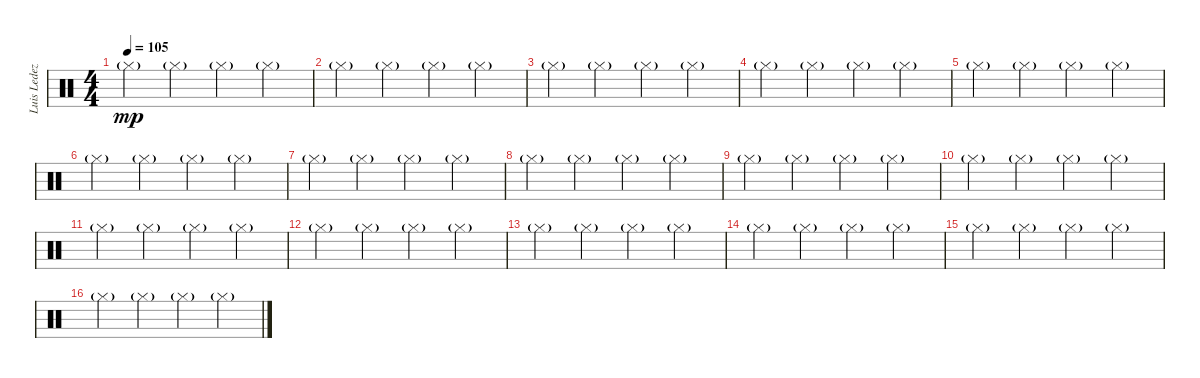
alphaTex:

\track ("Luis Ledezma (bateria)" "Luis Ledez") {instrument percussion}
\staff {score}
\articulation defaults
\ts (4 4)
\tempo 105
\clef neutral
\ks c "Hi-Hat (closed)"{g}.4{dy mp} "Hi-Hat (closed)"{g}.4 "Hi-Hat (closed)"{g}.4 "Hi-Hat (closed)"{g}.4
|
"Hi-Hat (closed)"{g}.4 "Hi-Hat (closed)"{g}.4 "Hi-Hat (closed)"{g}.4 "Hi-Hat (closed)"{g}.4 |
"Hi-Hat (closed)"{g}.4 "Hi-Hat (closed)"{g}.4 "Hi-Hat (closed)"{g}.4 "Hi-Hat (closed)"{g}.4 |
"Hi-Hat (closed)"{g}.4 "Hi-Hat (closed)"{g}.4 "Hi-Hat (closed)"{g}.4 "Hi-Hat (closed)"{g}.4 |
"Hi-Hat (closed)"{g}.4 "Hi-Hat (closed)"{g}.4 "Hi-Hat (closed)"{g}.4 "Hi-Hat (closed)"{g}.4 |
"Hi-Hat (closed)"{g}.4 "Hi-Hat (closed)"{g}.4 "Hi-Hat (closed)"{g}.4 "Hi-Hat (closed)"{g}.4 |
"Hi-Hat (closed)"{g}.4 "Hi-Hat (closed)"{g}.4 "Hi-Hat (closed)"{g}.4 "Hi-Hat (closed)"{g}.4 |
"Hi-Hat (closed)"{g}.4 "Hi-Hat (closed)"{g}.4 "Hi-Hat (closed)"{g}.4 "Hi-Hat (closed)"{g}.4 |
"Hi-Hat (closed)"{g}.4 "Hi-Hat (closed)"{g}.4 "Hi-Hat (closed)"{g}.4 "Hi-Hat (closed)"{g}.4 |
"Hi-Hat (closed)"{g}.4 "Hi-Hat (closed)"{g}.4 "Hi-Hat (closed)"{g}.4 "Hi-Hat (closed)"{g}.4 |
"Hi-Hat (closed)"{g}.4 "Hi-Hat (closed)"{g}.4 "Hi-Hat (closed)"{g}.4 "Hi-Hat (closed)"{g}.4 |
"Hi-Hat (closed)"{g}.4 "Hi-Hat (closed)"{g}.4 "Hi-Hat (closed)"{g}.4 "Hi-Hat (closed)"{g}.4 |
"Hi-Hat (closed)"{g}.4 "Hi-Hat (closed)"{g}.4 "Hi-Hat (closed)"{g}.4 "Hi-Hat (closed)"{g}.4 |
"Hi-Hat (closed)"{g}.4 "Hi-Hat (closed)"{g}.4 "Hi-Hat (closed)"{g}.4 "Hi-Hat (closed)"{g}.4 |
"Hi-Hat (closed)"{g}.4 "Hi-Hat (closed)"{g}.4 "Hi-Hat (closed)"{g}.4 "Hi-Hat (closed)"{g}.4 |
"Hi-Hat (closed)"{g}.4 "Hi-Hat (closed)"{g}.4 "Hi-Hat (closed)"{g}.4 "Hi-Hat (closed)"{g}.4
